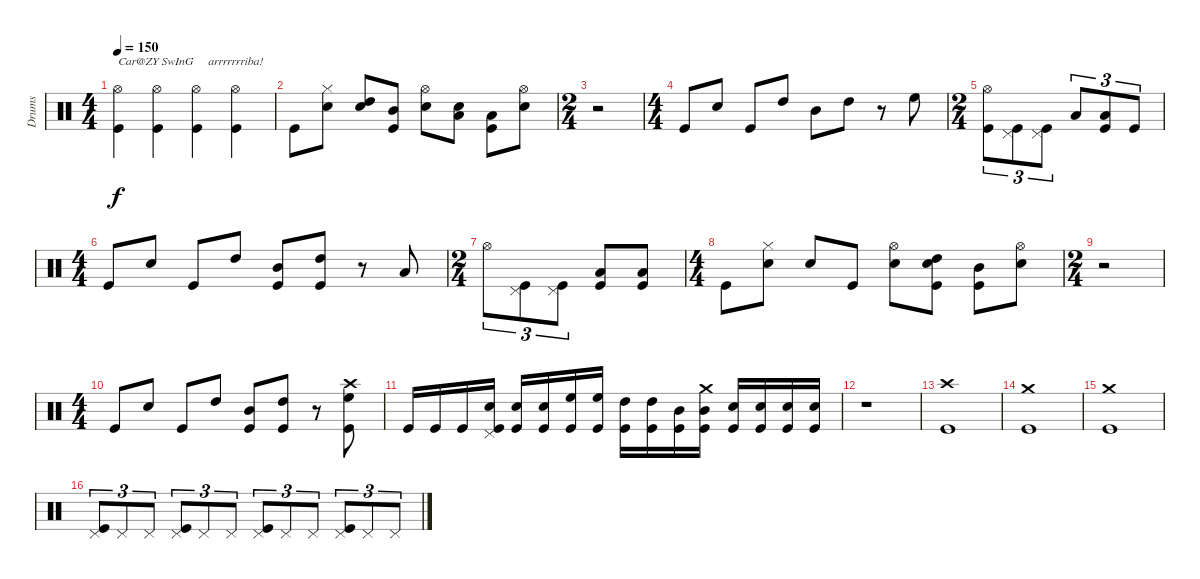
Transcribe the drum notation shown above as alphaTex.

\track ("Drums" "Drums") {instrument percussion}
\staff {score}
\articulation defaults
\ts (4 4)
\tempo 150
\clef neutral
\ks c
("Kick (hit)" "Hi-Hat (open)").4{txt "Car@ZY SwInG     arrrrrrriba!" dy f} ("Kick (hit)" "Hi-Hat (open)").4 ("Kick (hit)" "Hi-Hat (open)").4 ("Kick (hit)" "Hi-Hat (open)").4 |
"Kick (hit)".8 ("Snare (hit) 2" "Hi-Hat (closed)").8 ("Snare (hit) 2" "High Tom (hit)").8 ("Kick (hit)" "Mid Tom (hit)").8 ("Snare (hit) 2" "Hi-Hat (open)").8 ("Snare (hit) 2" "Low Tom (hit)").8 ("Kick (hit)" "Low Floor Tom (hit)").8 ("Snare (hit) 2" "Hi-Hat (open)").8 |
\ts (2 4)
r.2 |
\ts (4 4)
"Kick (hit)".8 "Snare (hit) 2".8 "Kick (hit)".8 "High Tom (hit)".8 "Mid Tom (hit)".8 "High Tom (hit)".8 r.8 "High Floor Tom (hit)".8 |
\ts (2 4)
("Kick (hit)" "Hi-Hat (open)").8{tu (3 2)} ("Kick (hit)" "Pedal Hi-Hat (hit)").8{tu (3 2)} ("Kick (hit)" "Pedal Hi-Hat (hit)").8{tu (3 2)} "Low Floor Tom (hit)".8{tu (3 2)} ("Kick (hit)" "Low Floor Tom (hit)").8{tu (3 2)} "Kick (hit)".8{tu (3 2)} |
\ts (4 4)
"Kick (hit)".8 "Snare (hit) 2".8 "Kick (hit)".8 "High Tom (hit)".8 ("Kick (hit)" "Mid Tom (hit)").8 ("Kick (hit)" "High Tom (hit)").8 r.8 "Low Floor Tom (hit)".8 |
\ts (2 4)
"Hi-Hat (open)".8{tu (3 2)} ("Kick (hit)" "Pedal Hi-Hat (hit)").8{tu (3 2)} ("Kick (hit)" "Pedal Hi-Hat (hit)").8{tu (3 2)} ("Kick (hit)" "Low Floor Tom (hit)").8 ("Kick (hit)" "Low Floor Tom (hit)").8 |
\ts (4 4)
"Kick (hit)".8 ("Snare (hit) 2" "Hi-Hat (closed)").8 "Snare (hit) 2".8 "Kick (hit)".8 ("Snare (hit) 2" "Hi-Hat (open)").8 ("Kick (hit)" "Snare (hit) 2" "High Tom (hit)").8 ("Kick (hit)" "Mid Tom (hit)").8 ("Snare (hit) 2" "Hi-Hat (open)").8 |
\ts (2 4)
r.2 |
\ts (4 4)
"Kick (hit)".8 "Snare (hit) 2".8 "Kick (hit)".8 "High Tom (hit)".8 ("Kick (hit)" "Mid Tom (hit)").8 ("Kick (hit)" "High Tom (hit)").8 r.8 ("Kick (hit)" "High Floor Tom (hit)" "Crash high (hit)").8 |
"Kick (hit)".16 "Kick (hit)".16 "Kick (hit)".16 ("Kick (hit)" "Snare (hit) 2" "Pedal Hi-Hat (hit)").16 ("Kick (hit)" "Snare (hit) 2").16 ("Kick (hit)" "Snare (hit) 2").16 ("Kick (hit)" "High Floor Tom (hit)").16 ("Kick (hit)" "High Floor Tom (hit)").16 ("Kick (hit)" "High Tom (hit)").16 ("Kick (hit)" "High Tom (hit)").16 ("Kick (hit)" "Mid Tom (hit)").16 ("Kick (hit)" "Mid Tom (hit)" "Crash medium (hit)").16 ("Kick (hit)" "Snare (hit) 2").16 ("Kick (hit)" "Snare (hit) 2").16 ("Kick (hit)" "Snare (hit) 2").16 ("Kick (hit)" "Snare (hit) 2").16 |
r.1 |
("Kick (hit)" "Crash high (hit)").1 |
("Kick (hit)" "Crash medium (hit)").1 |
("Kick (hit)" "Crash medium (hit)").1 |
("Kick (hit)" "Pedal Hi-Hat (hit)").8{tu (3 2)} "Pedal Hi-Hat (hit)".8{tu (3 2)} "Pedal Hi-Hat (hit)".8{tu (3 2)} ("Kick (hit)" "Pedal Hi-Hat (hit)").8{tu (3 2)} "Pedal Hi-Hat (hit)".8{tu (3 2)} "Pedal Hi-Hat (hit)".8{tu (3 2)} ("Kick (hit)" "Pedal Hi-Hat (hit)").8{tu (3 2)} "Pedal Hi-Hat (hit)".8{tu (3 2)} "Pedal Hi-Hat (hit)".8{tu (3 2)} ("Kick (hit)" "Pedal Hi-Hat (hit)").8{tu (3 2)} "Pedal Hi-Hat (hit)".8{tu (3 2)} "Pedal Hi-Hat (hit)".8{tu (3 2)}
